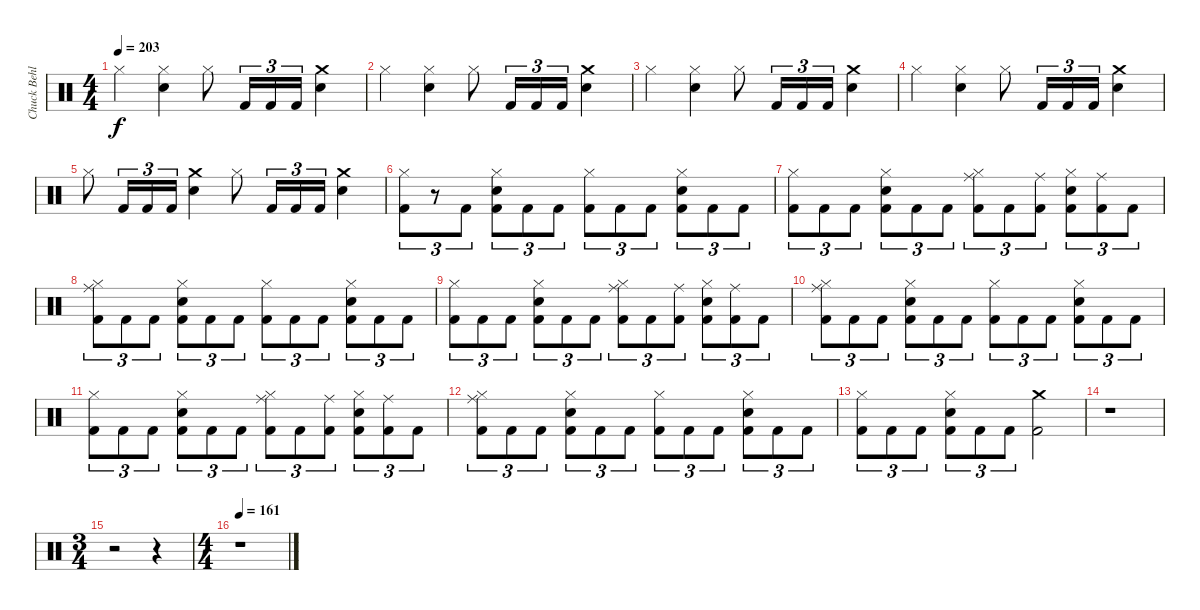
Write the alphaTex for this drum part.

\track ("Chuck Behler" "Chuck Behl") {instrument percussion}
\staff {score}
\articulation defaults
\ts (4 4)
\tempo 203
\clef neutral
\ks c "Hi-Hat (closed)".4{dy f}
("Hi-Hat (closed)" "Snare (hit) 2").4 "Hi-Hat (closed)".8 "Kick (hit) 2".16{tu (3 2)} "Kick (hit) 2".16{tu (3 2)} "Kick (hit) 2".16{tu (3 2)} ("Crash medium (hit)" "Snare (hit) 2").4 |
"Hi-Hat (closed)".4 ("Hi-Hat (closed)" "Snare (hit) 2").4 "Hi-Hat (closed)".8 "Kick (hit) 2".16{tu (3 2)} "Kick (hit) 2".16{tu (3 2)} "Kick (hit) 2".16{tu (3 2)} ("Crash medium (hit)" "Snare (hit) 2").4 |
"Hi-Hat (closed)".4 ("Hi-Hat (closed)" "Snare (hit) 2").4 "Hi-Hat (closed)".8 "Kick (hit) 2".16{tu (3 2)} "Kick (hit) 2".16{tu (3 2)} "Kick (hit) 2".16{tu (3 2)} ("Crash medium (hit)" "Snare (hit) 2").4 |
"Hi-Hat (closed)".4 ("Hi-Hat (closed)" "Snare (hit) 2").4 "Hi-Hat (closed)".8 "Kick (hit) 2".16{tu (3 2)} "Kick (hit) 2".16{tu (3 2)} "Kick (hit) 2".16{tu (3 2)} ("Crash medium (hit)" "Snare (hit) 2").4 |
"Hi-Hat (closed)".8 "Kick (hit) 2".16{tu (3 2)} "Kick (hit) 2".16{tu (3 2)} "Kick (hit) 2".16{tu (3 2)} ("Crash medium (hit)" "Snare (hit) 2").4 "Hi-Hat (closed)".8 "Kick (hit) 2".16{tu (3 2)} "Kick (hit) 2".16{tu (3 2)} "Kick (hit) 2".16{tu (3 2)} ("Crash medium (hit)" "Snare (hit) 2").4 |
("Hi-Hat (closed)" "Kick (hit) 2").8{tu (3 2)} r.8{tu (3 2)} "Kick (hit) 2".8{tu (3 2)} ("Hi-Hat (closed)" "Snare (hit) 2" "Kick (hit) 2").8{tu (3 2)} "Kick (hit) 2".8{tu (3 2)} "Kick (hit) 2".8{tu (3 2)} ("Hi-Hat (closed)" "Kick (hit) 2").8{tu (3 2)} "Kick (hit) 2".8{tu (3 2)} "Kick (hit) 2".8{tu (3 2)} ("Hi-Hat (closed)" "Snare (hit) 2" "Kick (hit) 2").8{tu (3 2)} "Kick (hit) 2".8{tu (3 2)} "Kick (hit) 2".8{tu (3 2)} |
("Hi-Hat (closed)" "Kick (hit) 2").8{tu (3 2)} "Kick (hit) 2".8{tu (3 2)} "Kick (hit) 2".8{tu (3 2)} ("Hi-Hat (closed)" "Snare (hit) 2" "Kick (hit) 2").8{tu (3 2)} "Kick (hit) 2".8{tu (3 2)} "Kick (hit) 2".8{tu (3 2)} ("Ride (middle)" "Hi-Hat (closed)" "Kick (hit) 2").8{tu (3 2)} "Kick (hit) 2".8{tu (3 2)} ("Ride (middle)" "Kick (hit) 2").8{tu (3 2)} ("Hi-Hat (closed)" "Snare (hit) 2" "Kick (hit) 2").8{tu (3 2)} ("Ride (middle)" "Kick (hit) 2").8{tu (3 2)} "Kick (hit) 2".8{tu (3 2)} |
("Ride (middle)" "Hi-Hat (closed)" "Kick (hit) 2").8{tu (3 2)} "Kick (hit) 2".8{tu (3 2)} "Kick (hit) 2".8{tu (3 2)} ("Hi-Hat (closed)" "Snare (hit) 2" "Kick (hit) 2").8{tu (3 2)} "Kick (hit) 2".8{tu (3 2)} "Kick (hit) 2".8{tu (3 2)} ("Hi-Hat (closed)" "Kick (hit) 2").8{tu (3 2)} "Kick (hit) 2".8{tu (3 2)} "Kick (hit) 2".8{tu (3 2)} ("Hi-Hat (closed)" "Snare (hit) 2" "Kick (hit) 2").8{tu (3 2)} "Kick (hit) 2".8{tu (3 2)} "Kick (hit) 2".8{tu (3 2)} |
("Hi-Hat (closed)" "Kick (hit) 2").8{tu (3 2)} "Kick (hit) 2".8{tu (3 2)} "Kick (hit) 2".8{tu (3 2)} ("Hi-Hat (closed)" "Snare (hit) 2" "Kick (hit) 2").8{tu (3 2)} "Kick (hit) 2".8{tu (3 2)} "Kick (hit) 2".8{tu (3 2)} ("Ride (middle)" "Hi-Hat (closed)" "Kick (hit) 2").8{tu (3 2)} "Kick (hit) 2".8{tu (3 2)} ("Ride (middle)" "Kick (hit) 2").8{tu (3 2)} ("Hi-Hat (closed)" "Snare (hit) 2" "Kick (hit) 2").8{tu (3 2)} ("Ride (middle)" "Kick (hit) 2").8{tu (3 2)} "Kick (hit) 2".8{tu (3 2)} |
("Ride (middle)" "Hi-Hat (closed)" "Kick (hit) 2").8{tu (3 2)} "Kick (hit) 2".8{tu (3 2)} "Kick (hit) 2".8{tu (3 2)} ("Hi-Hat (closed)" "Snare (hit) 2" "Kick (hit) 2").8{tu (3 2)} "Kick (hit) 2".8{tu (3 2)} "Kick (hit) 2".8{tu (3 2)} ("Hi-Hat (closed)" "Kick (hit) 2").8{tu (3 2)} "Kick (hit) 2".8{tu (3 2)} "Kick (hit) 2".8{tu (3 2)} ("Hi-Hat (closed)" "Snare (hit) 2" "Kick (hit) 2").8{tu (3 2)} "Kick (hit) 2".8{tu (3 2)} "Kick (hit) 2".8{tu (3 2)} |
("Hi-Hat (closed)" "Kick (hit) 2").8{tu (3 2)} "Kick (hit) 2".8{tu (3 2)} "Kick (hit) 2".8{tu (3 2)} ("Hi-Hat (closed)" "Snare (hit) 2" "Kick (hit) 2").8{tu (3 2)} "Kick (hit) 2".8{tu (3 2)} "Kick (hit) 2".8{tu (3 2)} ("Ride (middle)" "Hi-Hat (closed)" "Kick (hit) 2").8{tu (3 2)} "Kick (hit) 2".8{tu (3 2)} ("Ride (middle)" "Kick (hit) 2").8{tu (3 2)} ("Hi-Hat (closed)" "Snare (hit) 2" "Kick (hit) 2").8{tu (3 2)} ("Ride (middle)" "Kick (hit) 2").8{tu (3 2)} "Kick (hit) 2".8{tu (3 2)} |
("Ride (middle)" "Hi-Hat (closed)" "Kick (hit) 2").8{tu (3 2)} "Kick (hit) 2".8{tu (3 2)} "Kick (hit) 2".8{tu (3 2)} ("Hi-Hat (closed)" "Snare (hit) 2" "Kick (hit) 2").8{tu (3 2)} "Kick (hit) 2".8{tu (3 2)} "Kick (hit) 2".8{tu (3 2)} ("Hi-Hat (closed)" "Kick (hit) 2").8{tu (3 2)} "Kick (hit) 2".8{tu (3 2)} "Kick (hit) 2".8{tu (3 2)} ("Hi-Hat (closed)" "Snare (hit) 2" "Kick (hit) 2").8{tu (3 2)} "Kick (hit) 2".8{tu (3 2)} "Kick (hit) 2".8{tu (3 2)} |
("Hi-Hat (closed)" "Kick (hit) 2").8{tu (3 2)} "Kick (hit) 2".8{tu (3 2)} "Kick (hit) 2".8{tu (3 2)} ("Hi-Hat (closed)" "Snare (hit) 2" "Kick (hit) 2").8{tu (3 2)} "Kick (hit) 2".8{tu (3 2)} "Kick (hit) 2".8{tu (3 2)} ("Crash medium (hit)" "Kick (hit) 2").2 |
r.1 |
\ts (3 4)
r.2 r.4 |
\ts (4 4)
\tempo 161
r.1
